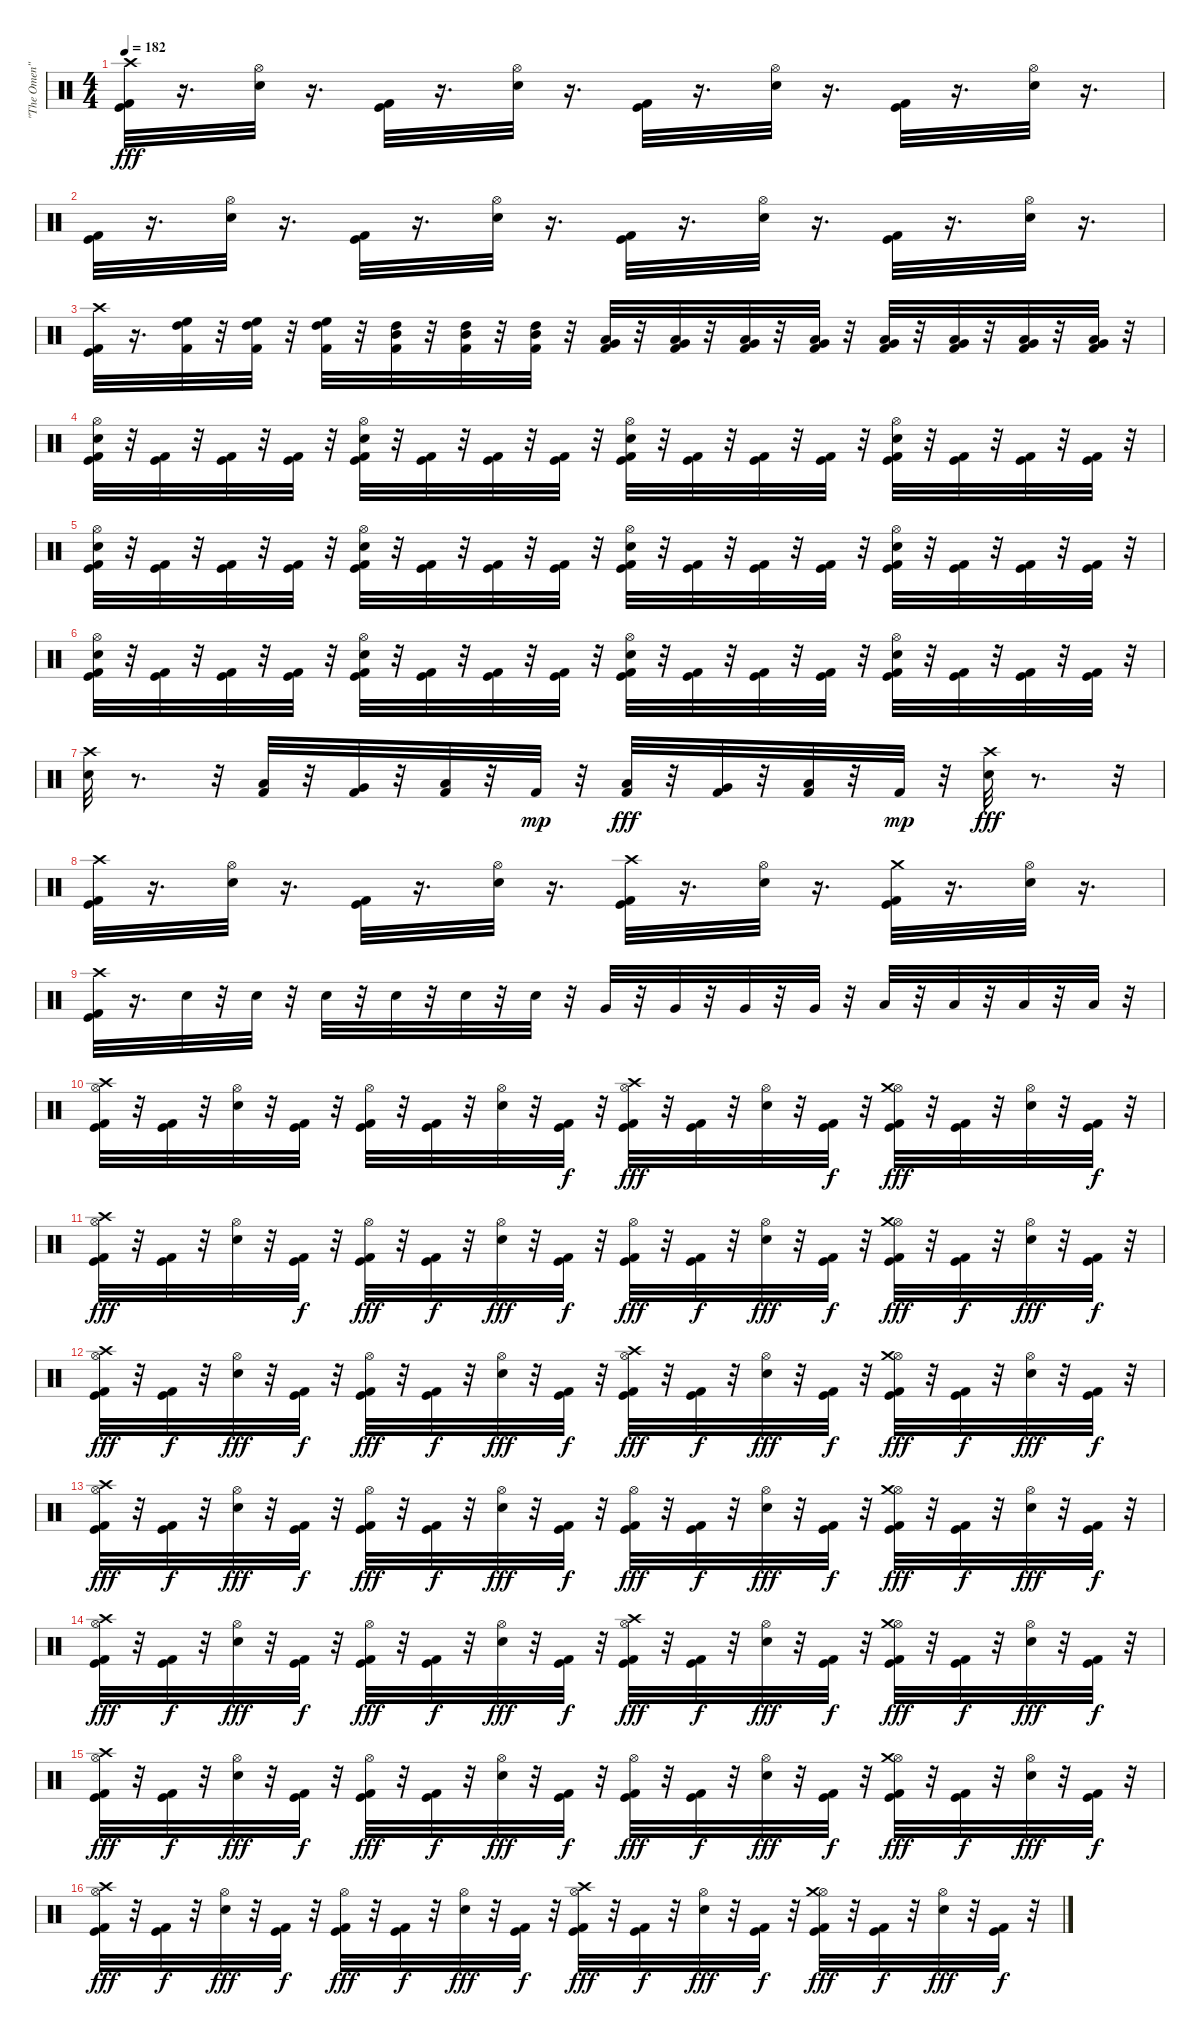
\track ("\"The Omen\"" "\"The Omen\"") {instrument percussion}
\staff {score}
\articulation defaults
\ts (4 4)
\tempo 182
\clef neutral
\ks c
("Kick (hit)" "Kick (hit) 2" "Crash high (hit)").32{dy fff} r.16{d} ("Snare (hit) 2" "Hi-Hat (open)").32 r.16{d} ("Kick (hit)" "Kick (hit) 2").32 r.16{d} ("Snare (hit) 2" "Hi-Hat (open)").32 r.16{d} ("Kick (hit)" "Kick (hit) 2").32 r.16{d} ("Snare (hit) 2" "Hi-Hat (open)").32 r.16{d} ("Kick (hit)" "Kick (hit) 2").32 r.16{d} ("Snare (hit) 2" "Hi-Hat (open)").32 r.16{d} |
("Kick (hit)" "Kick (hit) 2").32 r.16{d} ("Snare (hit) 2" "Hi-Hat (open)").32 r.16{d} ("Kick (hit)" "Kick (hit) 2").32 r.16{d} ("Snare (hit) 2" "Hi-Hat (open)").32 r.16{d} ("Kick (hit)" "Kick (hit) 2").32 r.16{d} ("Snare (hit) 2" "Hi-Hat (open)").32 r.16{d} ("Kick (hit)" "Kick (hit) 2").32 r.16{d} ("Snare (hit) 2" "Hi-Hat (open)").32 r.16{d} |
("Kick (hit)" "Kick (hit) 2" "Crash high (hit)").32 r.16{d} ("Kick (hit) 2" "High Tom (hit)" "High Floor Tom (hit)").32 r.32 ("Kick (hit) 2" "High Tom (hit)" "High Floor Tom (hit)").32 r.32 ("Kick (hit) 2" "High Tom (hit)" "High Floor Tom (hit)").32 r.32 ("Kick (hit) 2" "Mid Tom (hit)" "High Tom (hit)").32 r.32 ("Kick (hit) 2" "Mid Tom (hit)" "High Tom (hit)").32 r.32 ("Kick (hit) 2" "Mid Tom (hit)" "High Tom (hit)").32 r.32 ("Kick (hit) 2" "Very Low Tom (hit)" "Low Tom (hit)").32 r.32 ("Kick (hit) 2" "Very Low Tom (hit)" "Low Tom (hit)").32 r.32 ("Kick (hit) 2" "Very Low Tom (hit)" "Low Tom (hit)").32 r.32 ("Kick (hit) 2" "Very Low Tom (hit)" "Low Tom (hit)").32 r.32 ("Kick (hit) 2" "Low Floor Tom (hit)" "Very Low Tom (hit)").32 r.32 ("Kick (hit) 2" "Low Floor Tom (hit)" "Very Low Tom (hit)").32 r.32 ("Kick (hit) 2" "Low Floor Tom (hit)" "Very Low Tom (hit)").32 r.32 ("Kick (hit) 2" "Low Floor Tom (hit)" "Very Low Tom (hit)").32 r.32 |
("Kick (hit)" "Kick (hit) 2" "Snare (hit) 2" "Hi-Hat (open)").32 r.32 ("Kick (hit)" "Kick (hit) 2").32 r.32 ("Kick (hit)" "Kick (hit) 2").32 r.32 ("Kick (hit)" "Kick (hit) 2").32 r.32 ("Kick (hit)" "Kick (hit) 2" "Snare (hit) 2" "Hi-Hat (open)").32 r.32 ("Kick (hit)" "Kick (hit) 2").32 r.32 ("Kick (hit)" "Kick (hit) 2").32 r.32 ("Kick (hit)" "Kick (hit) 2").32 r.32 ("Kick (hit)" "Kick (hit) 2" "Snare (hit) 2" "Hi-Hat (open)").32 r.32 ("Kick (hit)" "Kick (hit) 2").32 r.32 ("Kick (hit)" "Kick (hit) 2").32 r.32 ("Kick (hit)" "Kick (hit) 2").32 r.32 ("Kick (hit)" "Kick (hit) 2" "Snare (hit) 2" "Hi-Hat (open)").32 r.32 ("Kick (hit)" "Kick (hit) 2").32 r.32 ("Kick (hit)" "Kick (hit) 2").32 r.32 ("Kick (hit)" "Kick (hit) 2").32 r.32 |
("Kick (hit)" "Kick (hit) 2" "Snare (hit) 2" "Hi-Hat (open)").32 r.32 ("Kick (hit)" "Kick (hit) 2").32 r.32 ("Kick (hit)" "Kick (hit) 2").32 r.32 ("Kick (hit)" "Kick (hit) 2").32 r.32 ("Kick (hit)" "Kick (hit) 2" "Snare (hit) 2" "Hi-Hat (open)").32 r.32 ("Kick (hit)" "Kick (hit) 2").32 r.32 ("Kick (hit)" "Kick (hit) 2").32 r.32 ("Kick (hit)" "Kick (hit) 2").32 r.32 ("Kick (hit)" "Kick (hit) 2" "Snare (hit) 2" "Hi-Hat (open)").32 r.32 ("Kick (hit)" "Kick (hit) 2").32 r.32 ("Kick (hit)" "Kick (hit) 2").32 r.32 ("Kick (hit)" "Kick (hit) 2").32 r.32 ("Kick (hit)" "Kick (hit) 2" "Snare (hit) 2" "Hi-Hat (open)").32 r.32 ("Kick (hit)" "Kick (hit) 2").32 r.32 ("Kick (hit)" "Kick (hit) 2").32 r.32 ("Kick (hit)" "Kick (hit) 2").32 r.32 |
("Kick (hit)" "Kick (hit) 2" "Snare (hit) 2" "Hi-Hat (open)").32 r.32 ("Kick (hit)" "Kick (hit) 2").32 r.32 ("Kick (hit)" "Kick (hit) 2").32 r.32 ("Kick (hit)" "Kick (hit) 2").32 r.32 ("Kick (hit)" "Kick (hit) 2" "Snare (hit) 2" "Hi-Hat (open)").32 r.32 ("Kick (hit)" "Kick (hit) 2").32 r.32 ("Kick (hit)" "Kick (hit) 2").32 r.32 ("Kick (hit)" "Kick (hit) 2").32 r.32 ("Kick (hit)" "Kick (hit) 2" "Snare (hit) 2" "Hi-Hat (open)").32 r.32 ("Kick (hit)" "Kick (hit) 2").32 r.32 ("Kick (hit)" "Kick (hit) 2").32 r.32 ("Kick (hit)" "Kick (hit) 2").32 r.32 ("Kick (hit)" "Kick (hit) 2" "Snare (hit) 2" "Hi-Hat (open)").32 r.32 ("Kick (hit)" "Kick (hit) 2").32 r.32 ("Kick (hit)" "Kick (hit) 2").32 r.32 ("Kick (hit)" "Kick (hit) 2").32 r.32 |
("Snare (hit) 2" "Crash high (hit)").32 r.8{d} r.32 ("Kick (hit) 2" "Low Tom (hit)").32 r.32 ("Kick (hit) 2" "Very Low Tom (hit)").32 r.32 ("Kick (hit) 2" "Low Floor Tom (hit)").32 r.32 "Kick (hit) 2".32{dy mp} r.32 ("Kick (hit) 2" "Low Tom (hit)").32{dy fff} r.32 ("Kick (hit) 2" "Very Low Tom (hit)").32 r.32 ("Kick (hit) 2" "Low Floor Tom (hit)").32 r.32 "Kick (hit) 2".32{dy mp} r.32 ("Snare (hit) 2" "Crash high (hit)").32{dy fff} r.8{d} r.32 |
("Kick (hit)" "Kick (hit) 2" "Crash high (hit)").32 r.16{d} ("Snare (hit) 2" "Hi-Hat (open)").32 r.16{d} ("Kick (hit)" "Kick (hit) 2").32 r.16{d} ("Snare (hit) 2" "Hi-Hat (open)").32 r.16{d} ("Kick (hit)" "Kick (hit) 2" "Crash high (hit)").32 r.16{d} ("Snare (hit) 2" "Hi-Hat (open)").32 r.16{d} ("Kick (hit)" "Kick (hit) 2" "Crash medium (hit)").32 r.16{d} ("Snare (hit) 2" "Hi-Hat (open)").32 r.16{d} |
("Kick (hit)" "Kick (hit) 2" "Crash high (hit)").32 r.16{d} "Snare (hit) 2".32 r.32 "Snare (hit) 2".32 r.32 "Snare (hit) 2".32 r.32 "Snare (hit) 2".32 r.32 "Snare (hit) 2".32 r.32 "Snare (hit) 2".32 r.32 "Very Low Tom (hit)".32 r.32 "Very Low Tom (hit)".32 r.32 "Very Low Tom (hit)".32 r.32 "Very Low Tom (hit)".32 r.32 "Low Floor Tom (hit)".32 r.32 "Low Floor Tom (hit)".32 r.32 "Low Floor Tom (hit)".32 r.32 "Low Floor Tom (hit)".32 r.32 |
("Kick (hit)" "Kick (hit) 2" "Hi-Hat (open)" "Crash high (hit)").32 r.32 ("Kick (hit)" "Kick (hit) 2").32 r.32 ("Snare (hit) 2" "Hi-Hat (open)").32 r.32 ("Kick (hit)" "Kick (hit) 2").32 r.32 ("Kick (hit)" "Kick (hit) 2" "Hi-Hat (open)").32 r.32 ("Kick (hit)" "Kick (hit) 2").32 r.32 ("Snare (hit) 2" "Hi-Hat (open)").32 r.32 ("Kick (hit)" "Kick (hit) 2").32{dy f} r.32 ("Kick (hit)" "Kick (hit) 2" "Hi-Hat (open)" "Crash high (hit)").32{dy fff} r.32 ("Kick (hit)" "Kick (hit) 2").32 r.32 ("Snare (hit) 2" "Hi-Hat (open)").32 r.32 ("Kick (hit)" "Kick (hit) 2").32{dy f} r.32 ("Kick (hit)" "Kick (hit) 2" "Hi-Hat (open)" "Crash medium (hit)").32{dy fff} r.32 ("Kick (hit)" "Kick (hit) 2").32 r.32 ("Snare (hit) 2" "Hi-Hat (open)").32 r.32 ("Kick (hit)" "Kick (hit) 2").32{dy f} r.32 |
("Kick (hit)" "Kick (hit) 2" "Hi-Hat (open)" "Crash high (hit)").32{dy fff} r.32 ("Kick (hit)" "Kick (hit) 2").32 r.32 ("Snare (hit) 2" "Hi-Hat (open)").32 r.32 ("Kick (hit)" "Kick (hit) 2").32{dy f} r.32 ("Kick (hit)" "Kick (hit) 2" "Hi-Hat (open)").32{dy fff} r.32 ("Kick (hit)" "Kick (hit) 2").32{dy f} r.32 ("Snare (hit) 2" "Hi-Hat (open)").32{dy fff} r.32 ("Kick (hit)" "Kick (hit) 2").32{dy f} r.32 ("Kick (hit)" "Kick (hit) 2" "Hi-Hat (open)").32{dy fff} r.32 ("Kick (hit)" "Kick (hit) 2").32{dy f} r.32 ("Snare (hit) 2" "Hi-Hat (open)").32{dy fff} r.32 ("Kick (hit)" "Kick (hit) 2").32{dy f} r.32 ("Kick (hit)" "Kick (hit) 2" "Hi-Hat (open)" "Crash medium (hit)").32{dy fff} r.32 ("Kick (hit)" "Kick (hit) 2").32{dy f} r.32 ("Snare (hit) 2" "Hi-Hat (open)").32{dy fff} r.32 ("Kick (hit)" "Kick (hit) 2").32{dy f} r.32 |
("Kick (hit)" "Kick (hit) 2" "Hi-Hat (open)" "Crash high (hit)").32{dy fff} r.32 ("Kick (hit)" "Kick (hit) 2").32{dy f} r.32 ("Snare (hit) 2" "Hi-Hat (open)").32{dy fff} r.32 ("Kick (hit)" "Kick (hit) 2").32{dy f} r.32 ("Kick (hit)" "Kick (hit) 2" "Hi-Hat (open)").32{dy fff} r.32 ("Kick (hit)" "Kick (hit) 2").32{dy f} r.32 ("Snare (hit) 2" "Hi-Hat (open)").32{dy fff} r.32 ("Kick (hit)" "Kick (hit) 2").32{dy f} r.32 ("Kick (hit)" "Kick (hit) 2" "Hi-Hat (open)" "Crash high (hit)").32{dy fff} r.32 ("Kick (hit)" "Kick (hit) 2").32{dy f} r.32 ("Snare (hit) 2" "Hi-Hat (open)").32{dy fff} r.32 ("Kick (hit)" "Kick (hit) 2").32{dy f} r.32 ("Kick (hit)" "Kick (hit) 2" "Hi-Hat (open)" "Crash medium (hit)").32{dy fff} r.32 ("Kick (hit)" "Kick (hit) 2").32{dy f} r.32 ("Snare (hit) 2" "Hi-Hat (open)").32{dy fff} r.32 ("Kick (hit)" "Kick (hit) 2").32{dy f} r.32 |
("Kick (hit)" "Kick (hit) 2" "Hi-Hat (open)" "Crash high (hit)").32{dy fff} r.32 ("Kick (hit)" "Kick (hit) 2").32{dy f} r.32 ("Snare (hit) 2" "Hi-Hat (open)").32{dy fff} r.32 ("Kick (hit)" "Kick (hit) 2").32{dy f} r.32 ("Kick (hit)" "Kick (hit) 2" "Hi-Hat (open)").32{dy fff} r.32 ("Kick (hit)" "Kick (hit) 2").32{dy f} r.32 ("Snare (hit) 2" "Hi-Hat (open)").32{dy fff} r.32 ("Kick (hit)" "Kick (hit) 2").32{dy f} r.32 ("Kick (hit)" "Kick (hit) 2" "Hi-Hat (open)").32{dy fff} r.32 ("Kick (hit)" "Kick (hit) 2").32{dy f} r.32 ("Snare (hit) 2" "Hi-Hat (open)").32{dy fff} r.32 ("Kick (hit)" "Kick (hit) 2").32{dy f} r.32 ("Kick (hit)" "Kick (hit) 2" "Hi-Hat (open)" "Crash medium (hit)").32{dy fff} r.32 ("Kick (hit)" "Kick (hit) 2").32{dy f} r.32 ("Snare (hit) 2" "Hi-Hat (open)").32{dy fff} r.32 ("Kick (hit)" "Kick (hit) 2").32{dy f} r.32 |
("Kick (hit)" "Kick (hit) 2" "Hi-Hat (open)" "Crash high (hit)").32{dy fff} r.32 ("Kick (hit)" "Kick (hit) 2").32{dy f} r.32 ("Snare (hit) 2" "Hi-Hat (open)").32{dy fff} r.32 ("Kick (hit)" "Kick (hit) 2").32{dy f} r.32 ("Kick (hit)" "Kick (hit) 2" "Hi-Hat (open)").32{dy fff} r.32 ("Kick (hit)" "Kick (hit) 2").32{dy f} r.32 ("Snare (hit) 2" "Hi-Hat (open)").32{dy fff} r.32 ("Kick (hit)" "Kick (hit) 2").32{dy f} r.32 ("Kick (hit)" "Kick (hit) 2" "Hi-Hat (open)" "Crash high (hit)").32{dy fff} r.32 ("Kick (hit)" "Kick (hit) 2").32{dy f} r.32 ("Snare (hit) 2" "Hi-Hat (open)").32{dy fff} r.32 ("Kick (hit)" "Kick (hit) 2").32{dy f} r.32 ("Kick (hit)" "Kick (hit) 2" "Hi-Hat (open)" "Crash medium (hit)").32{dy fff} r.32 ("Kick (hit)" "Kick (hit) 2").32{dy f} r.32 ("Snare (hit) 2" "Hi-Hat (open)").32{dy fff} r.32 ("Kick (hit)" "Kick (hit) 2").32{dy f} r.32 |
("Kick (hit)" "Kick (hit) 2" "Hi-Hat (open)" "Crash high (hit)").32{dy fff} r.32 ("Kick (hit)" "Kick (hit) 2").32{dy f} r.32 ("Snare (hit) 2" "Hi-Hat (open)").32{dy fff} r.32 ("Kick (hit)" "Kick (hit) 2").32{dy f} r.32 ("Kick (hit)" "Kick (hit) 2" "Hi-Hat (open)").32{dy fff} r.32 ("Kick (hit)" "Kick (hit) 2").32{dy f} r.32 ("Snare (hit) 2" "Hi-Hat (open)").32{dy fff} r.32 ("Kick (hit)" "Kick (hit) 2").32{dy f} r.32 ("Kick (hit)" "Kick (hit) 2" "Hi-Hat (open)").32{dy fff} r.32 ("Kick (hit)" "Kick (hit) 2").32{dy f} r.32 ("Snare (hit) 2" "Hi-Hat (open)").32{dy fff} r.32 ("Kick (hit)" "Kick (hit) 2").32{dy f} r.32 ("Kick (hit)" "Kick (hit) 2" "Hi-Hat (open)" "Crash medium (hit)").32{dy fff} r.32 ("Kick (hit)" "Kick (hit) 2").32{dy f} r.32 ("Snare (hit) 2" "Hi-Hat (open)").32{dy fff} r.32 ("Kick (hit)" "Kick (hit) 2").32{dy f} r.32 |
("Kick (hit)" "Kick (hit) 2" "Hi-Hat (open)" "Crash high (hit)").32{dy fff} r.32 ("Kick (hit)" "Kick (hit) 2").32{dy f} r.32 ("Snare (hit) 2" "Hi-Hat (open)").32{dy fff} r.32 ("Kick (hit)" "Kick (hit) 2").32{dy f} r.32 ("Kick (hit)" "Kick (hit) 2" "Hi-Hat (open)").32{dy fff} r.32 ("Kick (hit)" "Kick (hit) 2").32{dy f} r.32 ("Snare (hit) 2" "Hi-Hat (open)").32{dy fff} r.32 ("Kick (hit)" "Kick (hit) 2").32{dy f} r.32 ("Kick (hit)" "Kick (hit) 2" "Hi-Hat (open)" "Crash high (hit)").32{dy fff} r.32 ("Kick (hit)" "Kick (hit) 2").32{dy f} r.32 ("Snare (hit) 2" "Hi-Hat (open)").32{dy fff} r.32 ("Kick (hit)" "Kick (hit) 2").32{dy f} r.32 ("Kick (hit)" "Kick (hit) 2" "Hi-Hat (open)" "Crash medium (hit)").32{dy fff} r.32 ("Kick (hit)" "Kick (hit) 2").32{dy f} r.32 ("Snare (hit) 2" "Hi-Hat (open)").32{dy fff} r.32 ("Kick (hit)" "Kick (hit) 2").32{dy f} r.32
